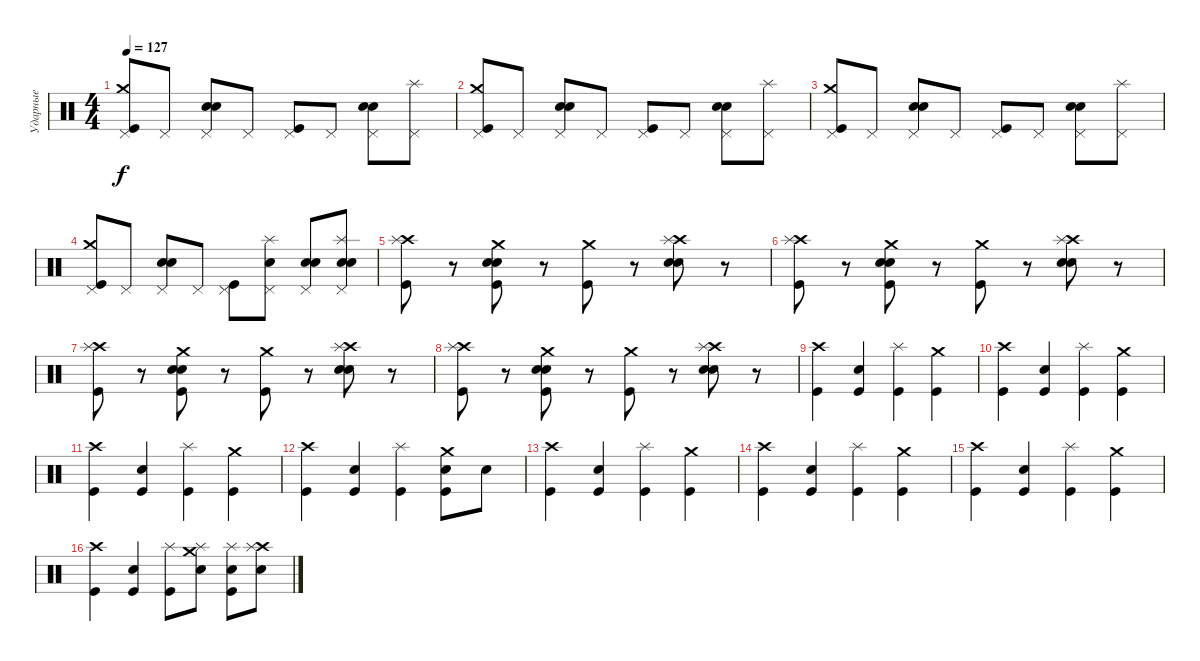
\track ("Ударные" "Ударные") {instrument percussion}
\staff {score}
\articulation defaults
\ts (4 4)
\tempo 127
\clef neutral
\ks c
("Pedal Hi-Hat (hit)" "Crash medium (hit)" "Kick (hit)").8{dy f} "Pedal Hi-Hat (hit)".8 ("Pedal Hi-Hat (hit)" "Snare (hit) 2" "Snare (hit) 2").8 "Pedal Hi-Hat (hit)".8 ("Pedal Hi-Hat (hit)" "Kick (hit)").8 "Pedal Hi-Hat (hit)".8 ("Pedal Hi-Hat (hit)" "Snare (hit) 2" "Snare (hit) 2").8 ("Pedal Hi-Hat (hit)" "Splash (hit)").8 |
("Pedal Hi-Hat (hit)" "Crash medium (hit)" "Kick (hit)").8 "Pedal Hi-Hat (hit)".8 ("Pedal Hi-Hat (hit)" "Snare (hit) 2" "Snare (hit) 2").8 "Pedal Hi-Hat (hit)".8 ("Pedal Hi-Hat (hit)" "Kick (hit)").8 "Pedal Hi-Hat (hit)".8 ("Pedal Hi-Hat (hit)" "Snare (hit) 2" "Snare (hit) 2").8 ("Pedal Hi-Hat (hit)" "Splash (hit)").8 |
("Pedal Hi-Hat (hit)" "Crash medium (hit)" "Kick (hit)").8 "Pedal Hi-Hat (hit)".8 ("Pedal Hi-Hat (hit)" "Snare (hit) 2" "Snare (hit) 2").8 "Pedal Hi-Hat (hit)".8 ("Pedal Hi-Hat (hit)" "Kick (hit)").8 "Pedal Hi-Hat (hit)".8 ("Pedal Hi-Hat (hit)" "Snare (hit) 2" "Snare (hit) 2").8 ("Pedal Hi-Hat (hit)" "Splash (hit)").8 |
("Pedal Hi-Hat (hit)" "Crash medium (hit)" "Kick (hit)").8 "Pedal Hi-Hat (hit)".8 ("Pedal Hi-Hat (hit)" "Snare (hit) 2" "Snare (hit) 2").8 "Pedal Hi-Hat (hit)".8 ("Pedal Hi-Hat (hit)" "Kick (hit)").8 ("Pedal Hi-Hat (hit)" "Splash (hit)" "Snare (hit) 2").8 ("Pedal Hi-Hat (hit)" "Snare (hit) 2" "Snare (hit) 2").8 ("Pedal Hi-Hat (hit)" "Splash (hit)" "Electric Snare (hit)" "Electric Snare (hit)").8 |
("Crash high (hit)" "Splash (hit)" "Kick (hit)").8 r.8 ("Crash medium (hit)" "Electric Snare (hit)" "Electric Snare (hit)" "Kick (hit)").8 r.8 ("Crash medium (hit)" "Kick (hit)").8 r.8 ("Crash high (hit)" "Splash (hit)" "Electric Snare (hit)" "Electric Snare (hit)").8 r.8 |
("Crash high (hit)" "Splash (hit)" "Kick (hit)").8 r.8 ("Crash medium (hit)" "Electric Snare (hit)" "Electric Snare (hit)" "Kick (hit)").8 r.8 ("Crash medium (hit)" "Kick (hit)").8 r.8 ("Crash high (hit)" "Splash (hit)" "Electric Snare (hit)" "Electric Snare (hit)").8 r.8 |
("Crash high (hit)" "Splash (hit)" "Kick (hit)").8 r.8 ("Crash medium (hit)" "Electric Snare (hit)" "Electric Snare (hit)" "Kick (hit)").8 r.8 ("Crash medium (hit)" "Kick (hit)").8 r.8 ("Crash high (hit)" "Splash (hit)" "Electric Snare (hit)" "Electric Snare (hit)").8 r.8 |
("Crash high (hit)" "Splash (hit)" "Kick (hit)").8 r.8 ("Crash medium (hit)" "Electric Snare (hit)" "Electric Snare (hit)" "Kick (hit)").8 r.8 ("Crash medium (hit)" "Kick (hit)").8 r.8 ("Crash high (hit)" "Splash (hit)" "Electric Snare (hit)" "Electric Snare (hit)").8 r.8 |
("Crash high (hit)" "Kick (hit)").4 ("Snare (hit) 2" "Kick (hit)").4 ("Splash (hit)" "Kick (hit)").4 ("Crash medium (hit)" "Kick (hit)").4 |
("Crash high (hit)" "Kick (hit)").4 ("Snare (hit) 2" "Kick (hit)").4 ("Splash (hit)" "Kick (hit)").4 ("Crash medium (hit)" "Kick (hit)").4 |
("Crash high (hit)" "Kick (hit)").4 ("Snare (hit) 2" "Kick (hit)").4 ("Splash (hit)" "Kick (hit)").4 ("Crash medium (hit)" "Kick (hit)").4 |
("Crash high (hit)" "Kick (hit)").4 ("Snare (hit) 2" "Kick (hit)").4 ("Splash (hit)" "Kick (hit)").4 ("Crash medium (hit)" "Snare (hit) 2" "Kick (hit)").8 "Snare (hit) 2".8 |
("Crash high (hit)" "Kick (hit)").4 ("Snare (hit) 2" "Kick (hit)").4 ("Splash (hit)" "Kick (hit)").4 ("Crash medium (hit)" "Kick (hit)").4 |
("Crash high (hit)" "Kick (hit)").4 ("Snare (hit) 2" "Kick (hit)").4 ("Splash (hit)" "Kick (hit)").4 ("Crash medium (hit)" "Kick (hit)").4 |
("Crash high (hit)" "Kick (hit)").4 ("Snare (hit) 2" "Kick (hit)").4 ("Splash (hit)" "Kick (hit)").4 ("Crash medium (hit)" "Kick (hit)").4 |
("Crash high (hit)" "Kick (hit)").4 ("Snare (hit) 2" "Kick (hit)").4 ("Splash (hit)" "Kick (hit)").8 ("Crash medium (hit)" "Splash (hit)" "Snare (hit) 2").8 ("Splash (hit)" "Snare (hit) 2" "Kick (hit)").8 ("Crash high (hit)" "Splash (hit)" "Snare (hit) 2").8
